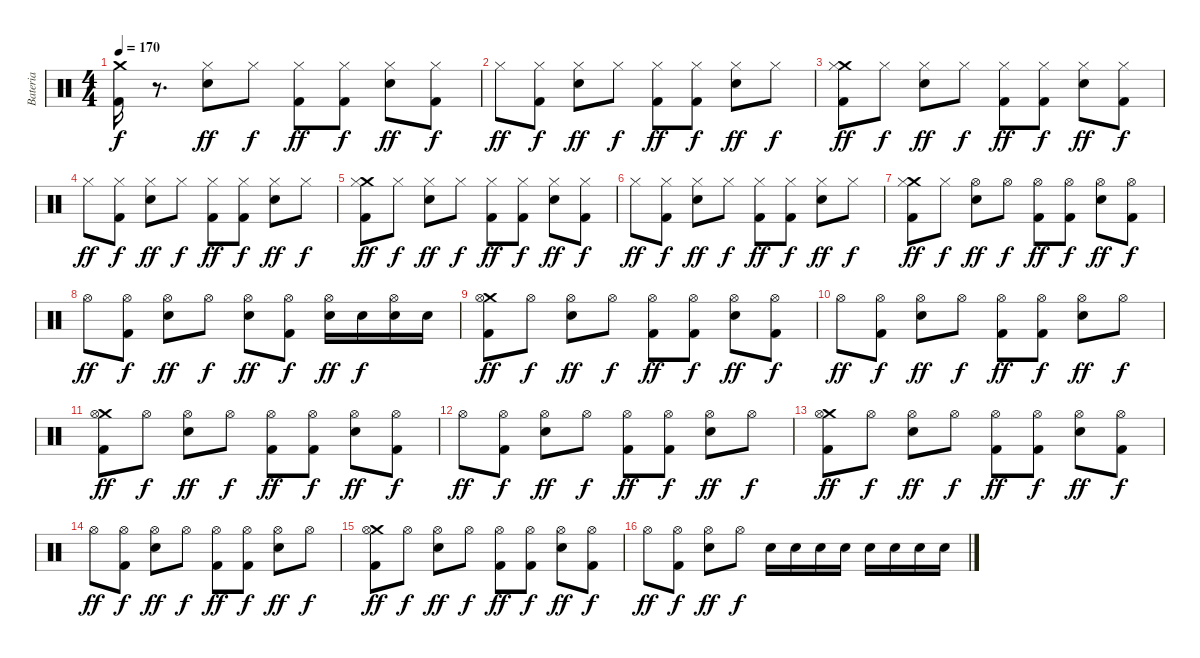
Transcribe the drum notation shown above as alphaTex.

\track ("Bateria" "Bateria") {instrument percussion}
\staff {score}
\articulation defaults
\ts (4 4)
\tempo 170
\clef neutral
\ks c
("Crash medium (hit)" "Kick (hit) 2").16{dy f} r.8{d} ("Hi-Hat (closed)" "Electric Snare (hit)").8{dy ff} "Hi-Hat (closed)".8{dy f} ("Hi-Hat (closed)" "Kick (hit) 2").8{dy ff} ("Hi-Hat (closed)" "Kick (hit) 2").8{dy f} ("Hi-Hat (closed)" "Electric Snare (hit)").8{dy ff} ("Hi-Hat (closed)" "Kick (hit) 2").8{dy f} |
"Hi-Hat (closed)".8{dy ff} ("Hi-Hat (closed)" "Kick (hit) 2").8{dy f} ("Hi-Hat (closed)" "Electric Snare (hit)").8{dy ff} "Hi-Hat (closed)".8{dy f} ("Hi-Hat (closed)" "Kick (hit) 2").8{dy ff} ("Hi-Hat (closed)" "Kick (hit) 2").8{dy f} ("Hi-Hat (closed)" "Electric Snare (hit)").8{dy ff} "Hi-Hat (closed)".8{dy f} |
("Crash medium (hit)" "Hi-Hat (closed)" "Kick (hit) 2").8{dy ff} "Hi-Hat (closed)".8{dy f} ("Hi-Hat (closed)" "Electric Snare (hit)").8{dy ff} "Hi-Hat (closed)".8{dy f} ("Hi-Hat (closed)" "Kick (hit) 2").8{dy ff} ("Hi-Hat (closed)" "Kick (hit) 2").8{dy f} ("Hi-Hat (closed)" "Electric Snare (hit)").8{dy ff} ("Hi-Hat (closed)" "Kick (hit) 2").8{dy f} |
"Hi-Hat (closed)".8{dy ff} ("Hi-Hat (closed)" "Kick (hit) 2").8{dy f} ("Hi-Hat (closed)" "Electric Snare (hit)").8{dy ff} "Hi-Hat (closed)".8{dy f} ("Hi-Hat (closed)" "Kick (hit) 2").8{dy ff} ("Hi-Hat (closed)" "Kick (hit) 2").8{dy f} ("Hi-Hat (closed)" "Electric Snare (hit)").8{dy ff} "Hi-Hat (closed)".8{dy f} |
("Crash medium (hit)" "Hi-Hat (closed)" "Kick (hit) 2").8{dy ff} "Hi-Hat (closed)".8{dy f} ("Hi-Hat (closed)" "Electric Snare (hit)").8{dy ff} "Hi-Hat (closed)".8{dy f} ("Hi-Hat (closed)" "Kick (hit) 2").8{dy ff} ("Hi-Hat (closed)" "Kick (hit) 2").8{dy f} ("Hi-Hat (closed)" "Electric Snare (hit)").8{dy ff} ("Hi-Hat (closed)" "Kick (hit) 2").8{dy f} |
"Hi-Hat (closed)".8{dy ff} ("Hi-Hat (closed)" "Kick (hit) 2").8{dy f} ("Hi-Hat (closed)" "Electric Snare (hit)").8{dy ff} "Hi-Hat (closed)".8{dy f} ("Hi-Hat (closed)" "Kick (hit) 2").8{dy ff} ("Hi-Hat (closed)" "Kick (hit) 2").8{dy f} ("Hi-Hat (closed)" "Electric Snare (hit)").8{dy ff} "Hi-Hat (closed)".8{dy f} |
("Crash medium (hit)" "Hi-Hat (closed)" "Kick (hit) 2").8{dy ff} "Hi-Hat (closed)".8{dy f} ("Hi-Hat (open)" "Electric Snare (hit)").8{dy ff} "Hi-Hat (open)".8{dy f} ("Hi-Hat (open)" "Kick (hit) 2").8{dy ff} ("Hi-Hat (open)" "Kick (hit) 2").8{dy f} ("Hi-Hat (open)" "Electric Snare (hit)").8{dy ff} ("Hi-Hat (open)" "Kick (hit) 2").8{dy f} |
"Hi-Hat (open)".8{dy ff} ("Hi-Hat (open)" "Kick (hit) 2").8{dy f} ("Hi-Hat (open)" "Electric Snare (hit)").8{dy ff} "Hi-Hat (open)".8{dy f} ("Hi-Hat (open)" "Electric Snare (hit)").8{dy ff} ("Hi-Hat (open)" "Kick (hit) 2").8{dy f} ("Hi-Hat (open)" "Electric Snare (hit)").16{dy ff} "Electric Snare (hit)".16{dy f} ("Hi-Hat (open)" "Electric Snare (hit)").16 "Electric Snare (hit)".16 |
("Crash medium (hit)" "Hi-Hat (open)" "Kick (hit) 2").8{dy ff} "Hi-Hat (open)".8{dy f} ("Hi-Hat (open)" "Electric Snare (hit)").8{dy ff} "Hi-Hat (open)".8{dy f} ("Hi-Hat (open)" "Kick (hit) 2").8{dy ff} ("Hi-Hat (open)" "Kick (hit) 2").8{dy f} ("Hi-Hat (open)" "Electric Snare (hit)").8{dy ff} ("Hi-Hat (open)" "Kick (hit) 2").8{dy f} |
"Hi-Hat (open)".8{dy ff} ("Hi-Hat (open)" "Kick (hit) 2").8{dy f} ("Hi-Hat (open)" "Electric Snare (hit)").8{dy ff} "Hi-Hat (open)".8{dy f} ("Hi-Hat (open)" "Kick (hit) 2").8{dy ff} ("Hi-Hat (open)" "Kick (hit) 2").8{dy f} ("Hi-Hat (open)" "Electric Snare (hit)").8{dy ff} "Hi-Hat (open)".8{dy f} |
("Crash medium (hit)" "Hi-Hat (open)" "Kick (hit) 2").8{dy ff} "Hi-Hat (open)".8{dy f} ("Hi-Hat (open)" "Electric Snare (hit)").8{dy ff} "Hi-Hat (open)".8{dy f} ("Hi-Hat (open)" "Kick (hit) 2").8{dy ff} ("Hi-Hat (open)" "Kick (hit) 2").8{dy f} ("Hi-Hat (open)" "Electric Snare (hit)").8{dy ff} ("Hi-Hat (open)" "Kick (hit) 2").8{dy f} |
"Hi-Hat (open)".8{dy ff} ("Hi-Hat (open)" "Kick (hit) 2").8{dy f} ("Hi-Hat (open)" "Electric Snare (hit)").8{dy ff} "Hi-Hat (open)".8{dy f} ("Hi-Hat (open)" "Kick (hit) 2").8{dy ff} ("Hi-Hat (open)" "Kick (hit) 2").8{dy f} ("Hi-Hat (open)" "Electric Snare (hit)").8{dy ff} "Hi-Hat (open)".8{dy f} |
("Crash medium (hit)" "Hi-Hat (open)" "Kick (hit) 2").8{dy ff} "Hi-Hat (open)".8{dy f} ("Hi-Hat (open)" "Electric Snare (hit)").8{dy ff} "Hi-Hat (open)".8{dy f} ("Hi-Hat (open)" "Kick (hit) 2").8{dy ff} ("Hi-Hat (open)" "Kick (hit) 2").8{dy f} ("Hi-Hat (open)" "Electric Snare (hit)").8{dy ff} ("Hi-Hat (open)" "Kick (hit) 2").8{dy f} |
"Hi-Hat (open)".8{dy ff} ("Hi-Hat (open)" "Kick (hit) 2").8{dy f} ("Hi-Hat (open)" "Electric Snare (hit)").8{dy ff} "Hi-Hat (open)".8{dy f} ("Hi-Hat (open)" "Kick (hit) 2").8{dy ff} ("Hi-Hat (open)" "Kick (hit) 2").8{dy f} ("Hi-Hat (open)" "Electric Snare (hit)").8{dy ff} "Hi-Hat (open)".8{dy f} |
("Crash medium (hit)" "Hi-Hat (open)" "Kick (hit) 2").8{dy ff} "Hi-Hat (open)".8{dy f} ("Hi-Hat (open)" "Electric Snare (hit)").8{dy ff} "Hi-Hat (open)".8{dy f} ("Hi-Hat (open)" "Kick (hit) 2").8{dy ff} ("Hi-Hat (open)" "Kick (hit) 2").8{dy f} ("Hi-Hat (open)" "Electric Snare (hit)").8{dy ff} ("Hi-Hat (open)" "Kick (hit) 2").8{dy f} |
"Hi-Hat (open)".8{dy ff} ("Hi-Hat (open)" "Kick (hit) 2").8{dy f} ("Hi-Hat (open)" "Electric Snare (hit)").8{dy ff} "Hi-Hat (open)".8{dy f} "Electric Snare (hit)".16 "Electric Snare (hit)".16 "Electric Snare (hit)".16 "Electric Snare (hit)".16 "Electric Snare (hit)".16 "Electric Snare (hit)".16 "Electric Snare (hit)".16 "Electric Snare (hit)".16
